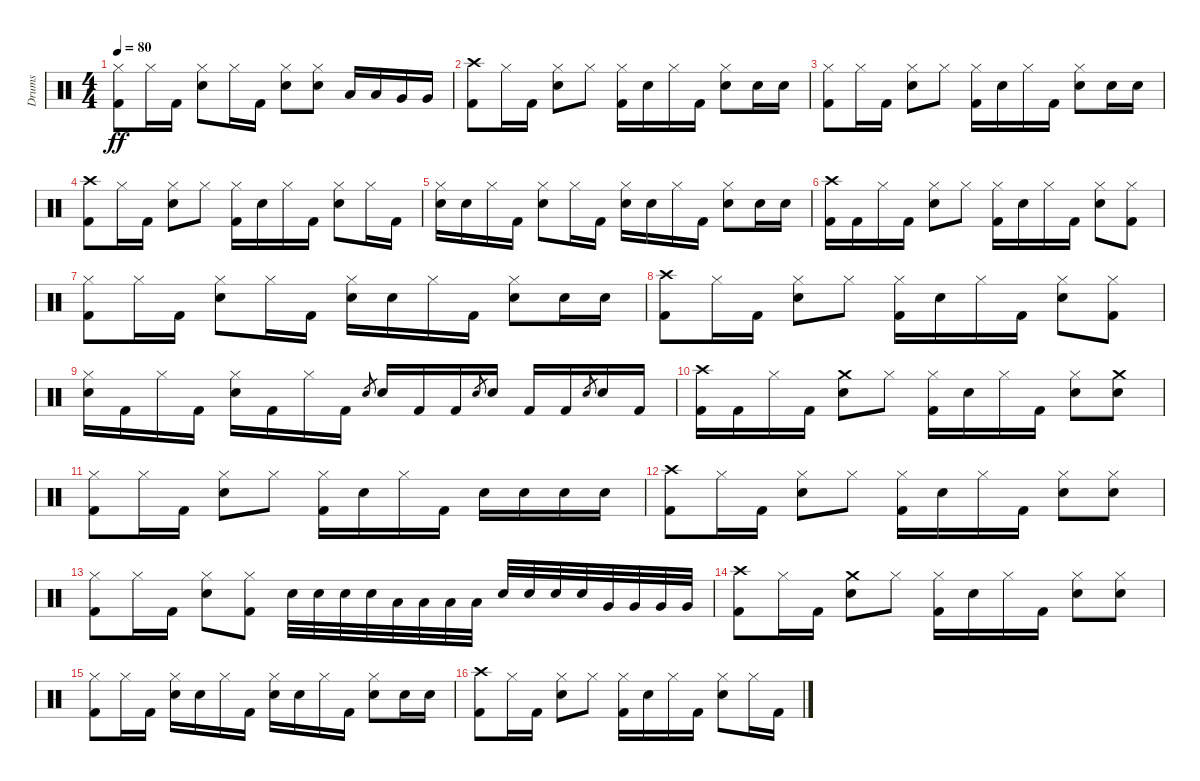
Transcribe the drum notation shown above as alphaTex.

\track ("Drums" "Drums") {instrument percussion}
\staff {score}
\articulation defaults
\ts (4 4)
\tempo 80
\clef neutral
\ks c
("Hi-Hat (closed)" "Kick (hit) 2").8{dy ff} "Hi-Hat (closed)".16 "Kick (hit) 2".16 ("Hi-Hat (closed)" "Snare (hit) 2").8 "Hi-Hat (closed)".16 "Kick (hit) 2".16 ("Hi-Hat (closed)" "Snare (hit) 2").8 ("Hi-Hat (closed)" "Snare (hit) 2").8 "Low Tom (hit)".16 "Low Tom (hit)".16 "Very Low Tom (hit)".16 "Very Low Tom (hit)".16 |
("Crash high (hit)" "Kick (hit) 2").8 "Hi-Hat (closed)".16 "Kick (hit) 2".16 ("Hi-Hat (closed)" "Snare (hit) 2").8 "Hi-Hat (closed)".8 ("Hi-Hat (closed)" "Kick (hit) 2").16 "Snare (hit) 2".16 "Hi-Hat (closed)".16 "Kick (hit) 2".16 ("Hi-Hat (closed)" "Snare (hit) 2").8 "Snare (hit) 2".16 "Snare (hit) 2".16 |
("Hi-Hat (closed)" "Kick (hit) 2").8 "Hi-Hat (closed)".16 "Kick (hit) 2".16 ("Hi-Hat (closed)" "Snare (hit) 2").8 "Hi-Hat (closed)".8 ("Hi-Hat (closed)" "Kick (hit) 2").16 "Snare (hit) 2".16 "Hi-Hat (closed)".16 "Kick (hit) 2".16 ("Hi-Hat (closed)" "Snare (hit) 2").8 "Snare (hit) 2".16 "Snare (hit) 2".16 |
("Crash high (hit)" "Kick (hit) 2").8 "Hi-Hat (closed)".16 "Kick (hit) 2".16 ("Hi-Hat (closed)" "Snare (hit) 2").8 "Hi-Hat (closed)".8 ("Hi-Hat (closed)" "Kick (hit) 2").16 "Snare (hit) 2".16 "Hi-Hat (closed)".16 "Kick (hit) 2".16 ("Hi-Hat (closed)" "Snare (hit) 2").8 "Hi-Hat (closed)".16 "Kick (hit) 2".16 |
("Hi-Hat (closed)" "Snare (hit) 2").16 "Snare (hit) 2".16 "Hi-Hat (closed)".16 "Kick (hit) 2".16 ("Hi-Hat (closed)" "Snare (hit) 2").8 "Hi-Hat (closed)".16 "Kick (hit) 2".16 ("Hi-Hat (closed)" "Snare (hit) 2").16 "Snare (hit) 2".16 "Hi-Hat (closed)".16 "Kick (hit) 2".16 ("Hi-Hat (closed)" "Snare (hit) 2").8 "Snare (hit) 2".16 "Snare (hit) 2".16 |
("Crash high (hit)" "Kick (hit) 2").16 "Kick (hit) 2".16 "Hi-Hat (closed)".16 "Kick (hit) 2".16 ("Hi-Hat (closed)" "Snare (hit) 2").8 "Hi-Hat (closed)".8 ("Hi-Hat (closed)" "Kick (hit) 2").16 "Snare (hit) 2".16 "Hi-Hat (closed)".16 "Kick (hit) 2".16 ("Hi-Hat (closed)" "Snare (hit) 2").8 ("Hi-Hat (closed)" "Kick (hit) 2").8 |
("Hi-Hat (closed)" "Kick (hit) 2").8 "Hi-Hat (closed)".16 "Kick (hit) 2".16 ("Hi-Hat (closed)" "Snare (hit) 2").8 "Hi-Hat (closed)".16 "Kick (hit) 2".16 ("Hi-Hat (closed)" "Snare (hit) 2").16 "Snare (hit) 2".16 "Hi-Hat (closed)".16 "Kick (hit) 2".16 ("Hi-Hat (closed)" "Snare (hit) 2").8 "Snare (hit) 2".16 "Snare (hit) 2".16 |
("Crash high (hit)" "Kick (hit) 2").8 "Hi-Hat (closed)".16 "Kick (hit) 2".16 ("Hi-Hat (closed)" "Snare (hit) 2").8 "Hi-Hat (closed)".8 ("Hi-Hat (closed)" "Kick (hit) 2").16 "Snare (hit) 2".16 "Hi-Hat (closed)".16 "Kick (hit) 2".16 ("Hi-Hat (closed)" "Snare (hit) 2").8 ("Hi-Hat (closed)" "Kick (hit) 2").8 |
("Hi-Hat (closed)" "Snare (hit) 2").16 "Kick (hit) 2".16 "Hi-Hat (closed)".16 "Kick (hit) 2".16 ("Hi-Hat (closed)" "Snare (hit) 2").16 "Kick (hit) 2".16 "Hi-Hat (closed)".16 "Kick (hit) 2".16 "Snare (hit) 2".8{gr} "Snare (hit) 2".16 "Kick (hit) 2".16 "Kick (hit) 2".16 "Snare (hit) 2".8{gr} "Snare (hit) 2".16 "Kick (hit) 2".16 "Kick (hit) 2".16 "Snare (hit) 2".8{gr} "Snare (hit) 2".16 "Kick (hit) 2".16 |
("Crash high (hit)" "Kick (hit) 2").16 "Kick (hit) 2".16 "Hi-Hat (closed)".16 "Kick (hit) 2".16 ("Crash medium (hit)" "Snare (hit) 2").8 "Hi-Hat (closed)".8 ("Hi-Hat (closed)" "Kick (hit) 2").16 "Snare (hit) 2".16 "Hi-Hat (closed)".16 "Kick (hit) 2".16 ("Hi-Hat (closed)" "Snare (hit) 2").8 ("Crash medium (hit)" "Snare (hit) 2").8 |
("Hi-Hat (closed)" "Kick (hit) 2").8 "Hi-Hat (closed)".16 "Kick (hit) 2".16 ("Hi-Hat (closed)" "Snare (hit) 2").8 "Hi-Hat (closed)".8 ("Hi-Hat (closed)" "Kick (hit) 2").16 "Snare (hit) 2".16 "Hi-Hat (closed)".16 "Kick (hit) 2".16 "Snare (hit) 2".16 "Snare (hit) 2".16 "Snare (hit) 2".16 "Snare (hit) 2".16 |
("Crash high (hit)" "Kick (hit) 2").8 "Hi-Hat (closed)".16 "Kick (hit) 2".16 ("Hi-Hat (closed)" "Snare (hit) 2").8 "Hi-Hat (closed)".8 ("Hi-Hat (closed)" "Kick (hit) 2").16 "Snare (hit) 2".16 "Hi-Hat (closed)".16 "Kick (hit) 2".16 ("Hi-Hat (closed)" "Snare (hit) 2").8 ("Hi-Hat (closed)" "Snare (hit) 2").8 |
("Hi-Hat (closed)" "Kick (hit) 2").8 "Hi-Hat (closed)".16 "Kick (hit) 2".16 ("Hi-Hat (closed)" "Snare (hit) 2").8 ("Hi-Hat (closed)" "Kick (hit) 2").8 "Snare (hit) 2".32 "Snare (hit) 2".32 "Snare (hit) 2".32 "Snare (hit) 2".32 "Low Tom (hit)".32 "Low Tom (hit)".32 "Low Tom (hit)".32 "Low Tom (hit)".32 "Snare (hit) 2".32 "Snare (hit) 2".32 "Snare (hit) 2".32 "Snare (hit) 2".32 "Very Low Tom (hit)".32 "Very Low Tom (hit)".32 "Very Low Tom (hit)".32 "Very Low Tom (hit)".32 |
("Crash high (hit)" "Kick (hit) 2").8 "Hi-Hat (closed)".16 "Kick (hit) 2".16 ("Crash medium (hit)" "Snare (hit) 2").8 "Hi-Hat (closed)".8 ("Hi-Hat (closed)" "Kick (hit) 2").16 "Snare (hit) 2".16 "Hi-Hat (closed)".16 "Kick (hit) 2".16 ("Hi-Hat (closed)" "Snare (hit) 2").8 ("Hi-Hat (closed)" "Snare (hit) 2").8 |
("Hi-Hat (closed)" "Kick (hit) 2").8 "Hi-Hat (closed)".16 "Kick (hit) 2".16 ("Hi-Hat (closed)" "Snare (hit) 2").16 "Snare (hit) 2".16 "Hi-Hat (closed)".16 "Kick (hit) 2".16 ("Hi-Hat (closed)" "Snare (hit) 2").16 "Snare (hit) 2".16 "Hi-Hat (closed)".16 "Kick (hit) 2".16 ("Hi-Hat (closed)" "Snare (hit) 2").8 "Snare (hit) 2".16 "Snare (hit) 2".16 |
("Crash high (hit)" "Kick (hit) 2").8 "Hi-Hat (closed)".16 "Kick (hit) 2".16 ("Hi-Hat (closed)" "Snare (hit) 2").8 "Hi-Hat (closed)".8 ("Hi-Hat (closed)" "Kick (hit) 2").16 "Snare (hit) 2".16 "Hi-Hat (closed)".16 "Kick (hit) 2".16 ("Hi-Hat (closed)" "Snare (hit) 2").8 "Hi-Hat (closed)".16 "Kick (hit) 2".16
